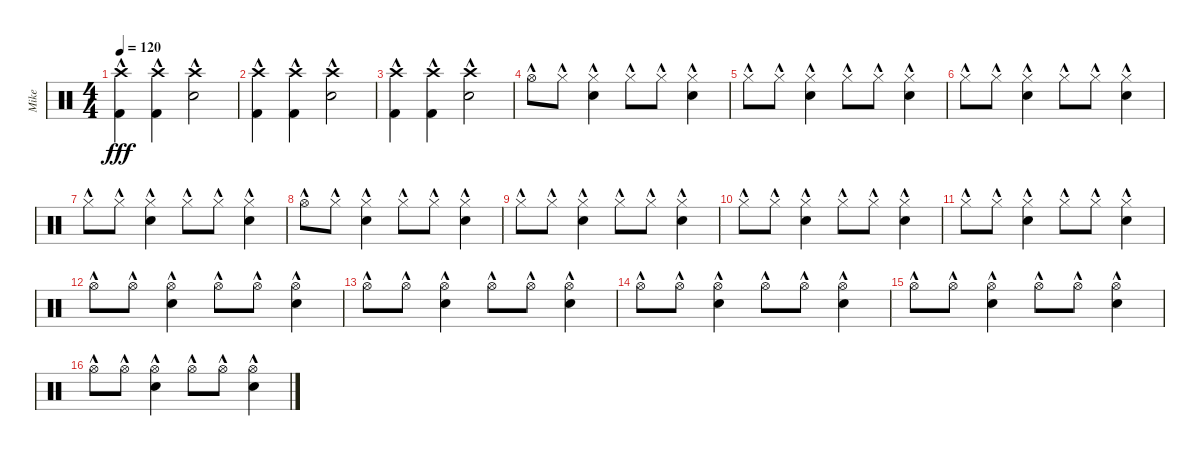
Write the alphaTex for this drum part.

\track ("Mike" "Mike") {instrument percussion}
\staff {score}
\articulation defaults
\ts (4 4)
\tempo 120
\clef neutral
\ks c
("Crash high (hit)"{hac} "Kick (hit) 2"{hac}).4{dy fff} ("Crash high (hit)"{hac} "Kick (hit) 2"{hac}).4 ("Crash high (hit)"{hac} "Electric Snare (hit)"{hac}).2 |
("Crash high (hit)"{hac} "Kick (hit) 2"{hac}).4 ("Crash high (hit)"{hac} "Kick (hit) 2"{hac}).4 ("Crash high (hit)"{hac} "Electric Snare (hit)"{hac}).2 |
("Crash high (hit)"{hac} "Kick (hit) 2"{hac}).4 ("Crash high (hit)"{hac} "Kick (hit) 2"{hac}).4 ("Crash high (hit)"{hac} "Electric Snare (hit)"{hac}).2 |
"Hi-Hat (open)"{hac}.8 "Hi-Hat (closed)"{hac}.8 ("Hi-Hat (closed)"{hac} "Electric Snare (hit)"{hac}).4 "Hi-Hat (closed)"{hac}.8 "Hi-Hat (closed)"{hac}.8 ("Hi-Hat (closed)"{hac} "Electric Snare (hit)"{hac}).4 |
"Hi-Hat (closed)"{hac}.8 "Hi-Hat (closed)"{hac}.8 ("Hi-Hat (closed)"{hac} "Electric Snare (hit)"{hac}).4 "Hi-Hat (closed)"{hac}.8 "Hi-Hat (closed)"{hac}.8 ("Hi-Hat (closed)"{hac} "Electric Snare (hit)"{hac}).4 |
"Hi-Hat (closed)"{hac}.8 "Hi-Hat (closed)"{hac}.8 ("Hi-Hat (closed)"{hac} "Electric Snare (hit)"{hac}).4 "Hi-Hat (closed)"{hac}.8 "Hi-Hat (closed)"{hac}.8 ("Hi-Hat (closed)"{hac} "Electric Snare (hit)"{hac}).4 |
"Hi-Hat (closed)"{hac}.8 "Hi-Hat (closed)"{hac}.8 ("Hi-Hat (closed)"{hac} "Electric Snare (hit)"{hac}).4 "Hi-Hat (closed)"{hac}.8 "Hi-Hat (closed)"{hac}.8 ("Hi-Hat (closed)"{hac} "Electric Snare (hit)"{hac}).4 |
"Hi-Hat (open)"{hac}.8 "Hi-Hat (closed)"{hac}.8 ("Hi-Hat (closed)"{hac} "Electric Snare (hit)"{hac}).4 "Hi-Hat (closed)"{hac}.8 "Hi-Hat (closed)"{hac}.8 ("Hi-Hat (closed)"{hac} "Electric Snare (hit)"{hac}).4 |
"Hi-Hat (closed)"{hac}.8 "Hi-Hat (closed)"{hac}.8 ("Hi-Hat (closed)"{hac} "Electric Snare (hit)"{hac}).4 "Hi-Hat (closed)"{hac}.8 "Hi-Hat (closed)"{hac}.8 ("Hi-Hat (closed)"{hac} "Electric Snare (hit)"{hac}).4 |
"Hi-Hat (closed)"{hac}.8 "Hi-Hat (closed)"{hac}.8 ("Hi-Hat (closed)"{hac} "Electric Snare (hit)"{hac}).4 "Hi-Hat (closed)"{hac}.8 "Hi-Hat (closed)"{hac}.8 ("Hi-Hat (closed)"{hac} "Electric Snare (hit)"{hac}).4 |
"Hi-Hat (closed)"{hac}.8 "Hi-Hat (closed)"{hac}.8 ("Hi-Hat (closed)"{hac} "Electric Snare (hit)"{hac}).4 "Hi-Hat (closed)"{hac}.8 "Hi-Hat (closed)"{hac}.8 ("Hi-Hat (closed)"{hac} "Electric Snare (hit)"{hac}).4 |
"Hi-Hat (open)"{hac}.8 "Hi-Hat (open)"{hac}.8 ("Hi-Hat (open)"{hac} "Electric Snare (hit)"{hac}).4 "Hi-Hat (open)"{hac}.8 "Hi-Hat (open)"{hac}.8 ("Hi-Hat (open)"{hac} "Electric Snare (hit)"{hac}).4 |
"Hi-Hat (open)"{hac}.8 "Hi-Hat (open)"{hac}.8 ("Hi-Hat (open)"{hac} "Electric Snare (hit)"{hac}).4 "Hi-Hat (open)"{hac}.8 "Hi-Hat (open)"{hac}.8 ("Hi-Hat (open)"{hac} "Electric Snare (hit)"{hac}).4 |
"Hi-Hat (open)"{hac}.8 "Hi-Hat (open)"{hac}.8 ("Hi-Hat (open)"{hac} "Electric Snare (hit)"{hac}).4 "Hi-Hat (open)"{hac}.8 "Hi-Hat (open)"{hac}.8 ("Hi-Hat (open)"{hac} "Electric Snare (hit)"{hac}).4 |
"Hi-Hat (open)"{hac}.8 "Hi-Hat (open)"{hac}.8 ("Hi-Hat (open)"{hac} "Electric Snare (hit)"{hac}).4 "Hi-Hat (open)"{hac}.8 "Hi-Hat (open)"{hac}.8 ("Hi-Hat (open)"{hac} "Electric Snare (hit)"{hac}).4 |
"Hi-Hat (open)"{hac}.8 "Hi-Hat (open)"{hac}.8 ("Hi-Hat (open)"{hac} "Electric Snare (hit)"{hac}).4 "Hi-Hat (open)"{hac}.8 "Hi-Hat (open)"{hac}.8 ("Hi-Hat (open)"{hac} "Electric Snare (hit)"{hac}).4
